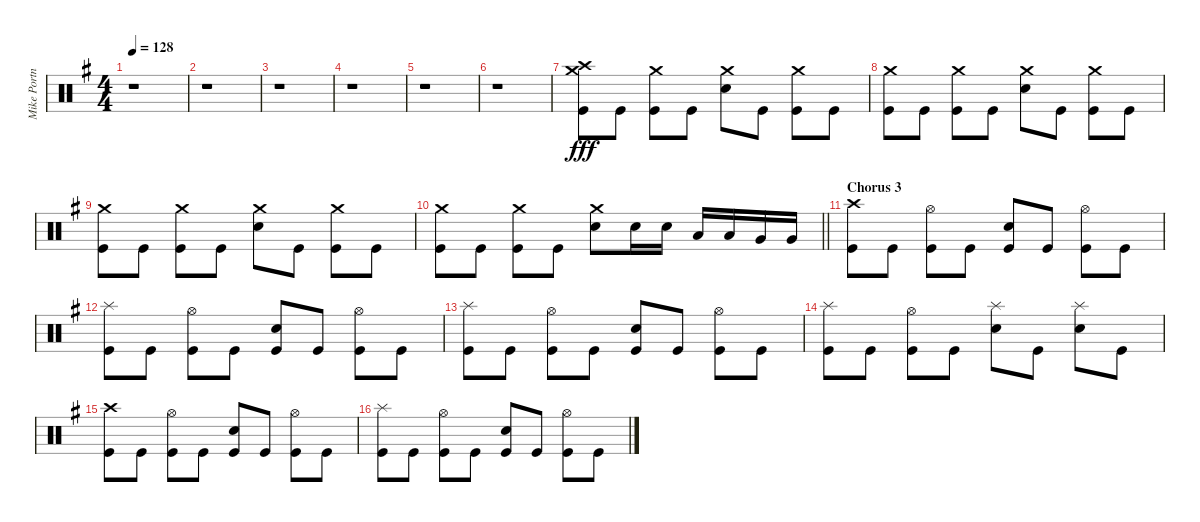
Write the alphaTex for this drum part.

\track ("Mike Portnoy" "Mike Portn") {instrument percussion}
\staff {score}
\articulation defaults
\ts (4 4)
\tempo 128
\clef neutral
\ks eminor
r.1{dy fff} |
r.1 |
r.1 |
r.1 |
r.1 |
r.1 |
("Kick (hit)" "Crash medium (hit)" "Crash high (hit)").8 "Kick (hit)".8 ("Kick (hit)" "Crash medium (hit)").8 "Kick (hit)".8 ("Crash medium (hit)" "Snare (hit) 2").8 "Kick (hit)".8 ("Kick (hit)" "Crash medium (hit)").8 "Kick (hit)".8 |
("Kick (hit)" "Crash medium (hit)").8 "Kick (hit)".8 ("Kick (hit)" "Crash medium (hit)").8 "Kick (hit)".8 ("Crash medium (hit)" "Snare (hit) 2").8 "Kick (hit)".8 ("Kick (hit)" "Crash medium (hit)").8 "Kick (hit)".8 |
("Kick (hit)" "Crash medium (hit)").8 "Kick (hit)".8 ("Kick (hit)" "Crash medium (hit)").8 "Kick (hit)".8 ("Crash medium (hit)" "Snare (hit) 2").8 "Kick (hit)".8 ("Kick (hit)" "Crash medium (hit)").8 "Kick (hit)".8 |
\barLineRight lightlight
("Kick (hit)" "Crash medium (hit)").8 "Kick (hit)".8 ("Kick (hit)" "Crash medium (hit)").8 "Kick (hit)".8 ("Crash medium (hit)" "Snare (hit) 2").8 "Snare (hit) 2".16 "Snare (hit) 2".16 "Low Tom (hit)".16 "Low Tom (hit)".16 "Very Low Tom (hit)".16 "Very Low Tom (hit)".16 |
\section ("" "Chorus 3")
("Kick (hit)" "Crash high (hit)").8 "Kick (hit)".8 ("Kick (hit)" "Hi-Hat (open)").8 "Kick (hit)".8 ("Kick (hit)" "Snare (hit) 2").8 "Kick (hit)".8 ("Kick (hit)" "Hi-Hat (open)").8 "Kick (hit)".8 |
("Kick (hit)" "Splash (hit)").8 "Kick (hit)".8 ("Kick (hit)" "Hi-Hat (open)").8 "Kick (hit)".8 ("Snare (hit) 2" "Kick (hit)").8 "Kick (hit)".8 ("Kick (hit)" "Hi-Hat (open)").8 "Kick (hit)".8 |
("Kick (hit)" "Splash (hit)").8 "Kick (hit)".8 ("Kick (hit)" "Hi-Hat (open)").8 "Kick (hit)".8 ("Snare (hit) 2" "Kick (hit)").8 "Kick (hit)".8 ("Kick (hit)" "Hi-Hat (open)").8 "Kick (hit)".8 |
("Kick (hit)" "Splash (hit)").8 "Kick (hit)".8 ("Kick (hit)" "Hi-Hat (open)").8 "Kick (hit)".8 ("Snare (hit) 2" "Splash (hit)").8 "Kick (hit)".8 ("Snare (hit) 2" "Splash (hit)").8 "Kick (hit)".8 |
("Kick (hit)" "Crash high (hit)").8 "Kick (hit)".8 ("Kick (hit)" "Hi-Hat (open)").8 "Kick (hit)".8 ("Kick (hit)" "Snare (hit) 2").8 "Kick (hit)".8 ("Kick (hit)" "Hi-Hat (open)").8 "Kick (hit)".8 |
("Kick (hit)" "Splash (hit)").8 "Kick (hit)".8 ("Kick (hit)" "Hi-Hat (open)").8 "Kick (hit)".8 ("Snare (hit) 2" "Kick (hit)").8 "Kick (hit)".8 ("Kick (hit)" "Hi-Hat (open)").8 "Kick (hit)".8
